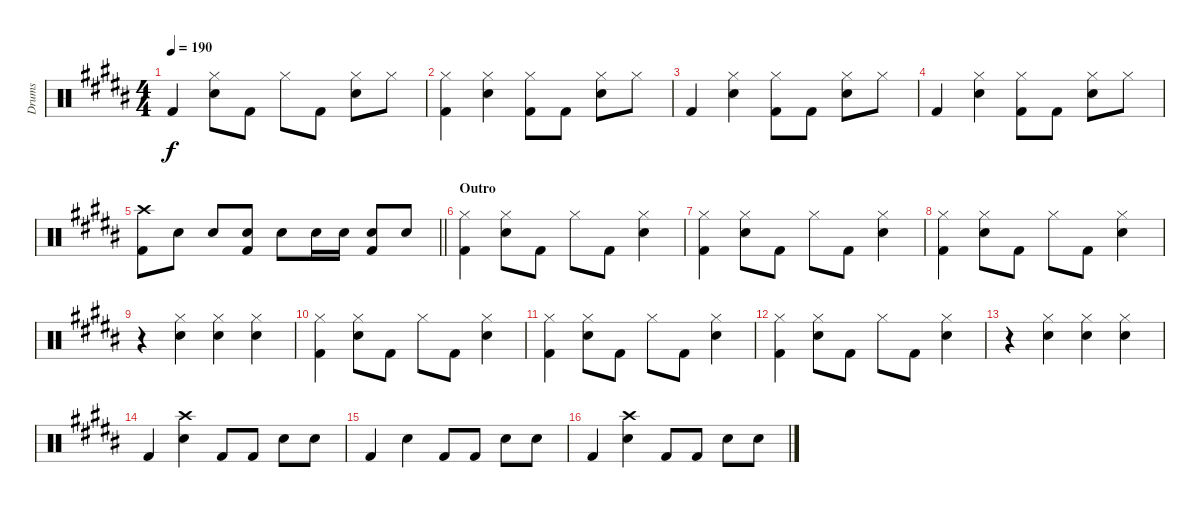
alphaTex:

\track ("Drums" "Drums") {instrument percussion}
\staff {score}
\articulation defaults
\ts (4 4)
\tempo 190
\clef neutral
\ks b "Kick (hit) 2".4{dy f}
("Hi-Hat (closed)" "Electric Snare (hit)").8 "Kick (hit) 2".8 "Hi-Hat (closed)".8 "Kick (hit) 2".8 ("Hi-Hat (closed)" "Electric Snare (hit)").8 "Hi-Hat (closed)".8 |
("Hi-Hat (closed)" "Kick (hit) 2").4 ("Hi-Hat (closed)" "Electric Snare (hit)").4 ("Hi-Hat (closed)" "Kick (hit) 2").8 "Kick (hit) 2".8 ("Hi-Hat (closed)" "Electric Snare (hit)").8 "Hi-Hat (closed)".8 |
"Kick (hit) 2".4 ("Hi-Hat (closed)" "Electric Snare (hit)").4 ("Hi-Hat (closed)" "Kick (hit) 2").8 "Kick (hit) 2".8 ("Hi-Hat (closed)" "Electric Snare (hit)").8 "Hi-Hat (closed)".8 |
"Kick (hit) 2".4 ("Hi-Hat (closed)" "Electric Snare (hit)").4 ("Hi-Hat (closed)" "Kick (hit) 2").8 "Kick (hit) 2".8 ("Hi-Hat (closed)" "Electric Snare (hit)").8 "Hi-Hat (closed)".8 |
\barLineRight lightlight
("Crash high (hit)" "Kick (hit) 2").8 "Snare (hit) 2".8 "Snare (hit) 2".8 ("Snare (hit) 2" "Kick (hit) 2").8 "Snare (hit) 2".8 "Snare (hit) 2".16 "Snare (hit) 2".16 ("Snare (hit) 2" "Kick (hit) 2").8 "Snare (hit) 2".8 |
\section ("" "Outro")
("Hi-Hat (closed)" "Kick (hit) 2").4 ("Hi-Hat (closed)" "Electric Snare (hit)").8 "Kick (hit) 2".8 "Hi-Hat (closed)".8 "Kick (hit) 2".8 ("Hi-Hat (closed)" "Electric Snare (hit)").4 |
("Hi-Hat (closed)" "Kick (hit) 2").4 ("Hi-Hat (closed)" "Electric Snare (hit)").8 "Kick (hit) 2".8 "Hi-Hat (closed)".8 "Kick (hit) 2".8 ("Hi-Hat (closed)" "Electric Snare (hit)").4 |
("Hi-Hat (closed)" "Kick (hit) 2").4 ("Hi-Hat (closed)" "Electric Snare (hit)").8 "Kick (hit) 2".8 "Hi-Hat (closed)".8 "Kick (hit) 2".8 ("Hi-Hat (closed)" "Electric Snare (hit)").4 |
r.4 ("Hi-Hat (closed)" "Electric Snare (hit)").4 ("Hi-Hat (closed)" "Electric Snare (hit)").4 ("Hi-Hat (closed)" "Electric Snare (hit)").4 |
("Hi-Hat (closed)" "Kick (hit) 2").4 ("Hi-Hat (closed)" "Electric Snare (hit)").8 "Kick (hit) 2".8 "Hi-Hat (closed)".8 "Kick (hit) 2".8 ("Hi-Hat (closed)" "Electric Snare (hit)").4 |
("Hi-Hat (closed)" "Kick (hit) 2").4 ("Hi-Hat (closed)" "Electric Snare (hit)").8 "Kick (hit) 2".8 "Hi-Hat (closed)".8 "Kick (hit) 2".8 ("Hi-Hat (closed)" "Electric Snare (hit)").4 |
("Hi-Hat (closed)" "Kick (hit) 2").4 ("Hi-Hat (closed)" "Electric Snare (hit)").8 "Kick (hit) 2".8 "Hi-Hat (closed)".8 "Kick (hit) 2".8 ("Hi-Hat (closed)" "Electric Snare (hit)").4 |
r.4 ("Hi-Hat (closed)" "Electric Snare (hit)").4 ("Hi-Hat (closed)" "Electric Snare (hit)").4 ("Hi-Hat (closed)" "Electric Snare (hit)").4 |
"Kick (hit) 2".4 ("Crash high (hit)" "Electric Snare (hit)").4 "Kick (hit) 2".8 "Kick (hit) 2".8 "Electric Snare (hit)".8 "Electric Snare (hit)".8 |
"Kick (hit) 2".4 "Electric Snare (hit)".4 "Kick (hit) 2".8 "Kick (hit) 2".8 "Electric Snare (hit)".8 "Electric Snare (hit)".8 |
"Kick (hit) 2".4 ("Crash high (hit)" "Electric Snare (hit)").4 "Kick (hit) 2".8 "Kick (hit) 2".8 "Electric Snare (hit)".8 "Electric Snare (hit)".8
